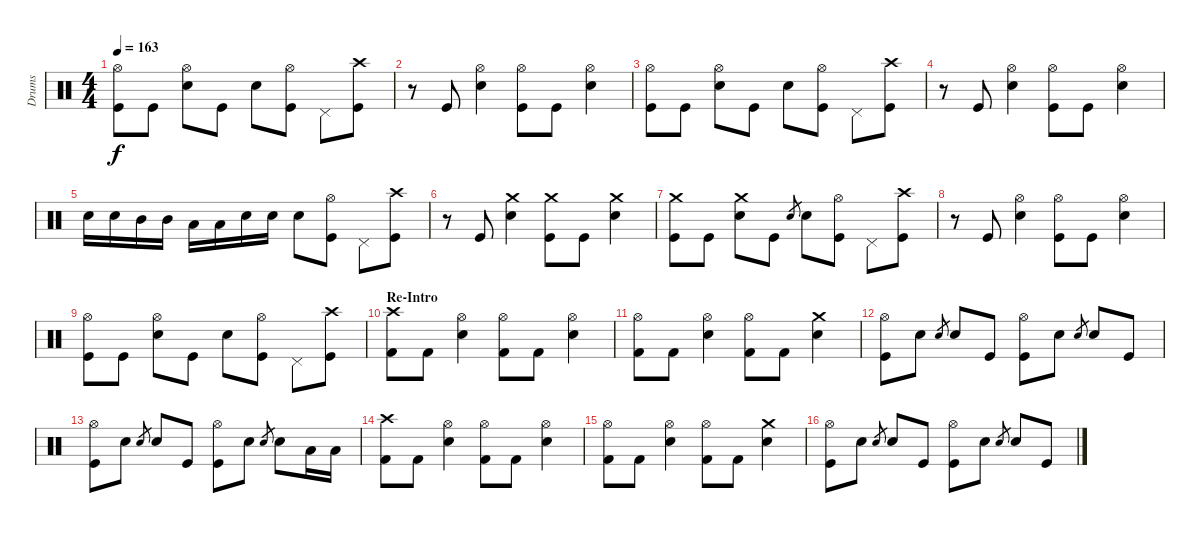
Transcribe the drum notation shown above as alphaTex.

\track ("Drums" "Drums") {instrument percussion}
\staff {score}
\articulation defaults
\ts (4 4)
\tempo 163
\clef neutral
\ks c
("Hi-Hat (open)" "Kick (hit)").8{dy f} "Kick (hit)".8 ("Hi-Hat (open)" "Electric Snare (hit)").8 "Kick (hit)".8 "Electric Snare (hit)".8 ("Hi-Hat (open)" "Kick (hit)").8 "Pedal Hi-Hat (hit)".8 ("Crash high (hit)" "Kick (hit)").8 |
r.8 "Kick (hit)".8 ("Hi-Hat (open)" "Electric Snare (hit)").4 ("Hi-Hat (open)" "Kick (hit)").8 "Kick (hit)".8 ("Hi-Hat (open)" "Electric Snare (hit)").4 |
("Hi-Hat (open)" "Kick (hit)").8 "Kick (hit)".8 ("Hi-Hat (open)" "Electric Snare (hit)").8 "Kick (hit)".8 "Electric Snare (hit)".8 ("Hi-Hat (open)" "Kick (hit)").8 "Pedal Hi-Hat (hit)".8 ("Crash high (hit)" "Kick (hit)").8 |
r.8 "Kick (hit)".8 ("Hi-Hat (open)" "Electric Snare (hit)").4 ("Hi-Hat (open)" "Kick (hit)").8 "Kick (hit)".8 ("Hi-Hat (open)" "Electric Snare (hit)").4 |
"Electric Snare (hit)".16 "Electric Snare (hit)".16 "Mid Tom (hit)".16 "Mid Tom (hit)".16 "Low Tom (hit)".16 "Low Tom (hit)".16 "Electric Snare (hit)".16 "Electric Snare (hit)".16 "Electric Snare (hit)".8 ("Hi-Hat (open)" "Kick (hit)").8 "Pedal Hi-Hat (hit)".8 ("Crash high (hit)" "Kick (hit)").8 |
r.8 "Kick (hit)".8 ("Crash medium (hit)" "Electric Snare (hit)").4 ("Crash medium (hit)" "Kick (hit)").8 "Kick (hit)".8 ("Crash medium (hit)" "Electric Snare (hit)").4 |
("Crash medium (hit)" "Kick (hit)").8 "Kick (hit)".8 ("Crash medium (hit)" "Electric Snare (hit)").8 "Kick (hit)".8 "Electric Snare (hit)".8{gr} "Electric Snare (hit)".8 ("Hi-Hat (open)" "Kick (hit)").8 "Pedal Hi-Hat (hit)".8 ("Crash high (hit)" "Kick (hit)").8 |
r.8 "Kick (hit)".8 ("Hi-Hat (open)" "Electric Snare (hit)").4 ("Hi-Hat (open)" "Kick (hit)").8 "Kick (hit)".8 ("Hi-Hat (open)" "Electric Snare (hit)").4 |
("Hi-Hat (open)" "Kick (hit)").8 "Kick (hit)".8 ("Hi-Hat (open)" "Electric Snare (hit)").8 "Kick (hit)".8 "Electric Snare (hit)".8 ("Hi-Hat (open)" "Kick (hit)").8 "Pedal Hi-Hat (hit)".8 ("Crash high (hit)" "Kick (hit)").8 |
\section ("" "Re-Intro")
("Crash high (hit)" "Kick (hit) 2").8 "Kick (hit) 2".8 ("Hi-Hat (open)" "Electric Snare (hit)").4 ("Hi-Hat (open)" "Kick (hit) 2").8 "Kick (hit) 2".8 ("Hi-Hat (open)" "Electric Snare (hit)").4 |
("Hi-Hat (open)" "Kick (hit) 2").8 "Kick (hit) 2".8 ("Hi-Hat (open)" "Electric Snare (hit)").4 ("Hi-Hat (open)" "Kick (hit) 2").8 "Kick (hit) 2".8 ("Crash medium (hit)" "Electric Snare (hit)").4 |
("Hi-Hat (open)" "Kick (hit)").8 "Electric Snare (hit)".8 "Electric Snare (hit)".8{gr} "Electric Snare (hit)".8 "Kick (hit)".8 ("Hi-Hat (open)" "Kick (hit)").8 "Electric Snare (hit)".8 "Electric Snare (hit)".8{gr} "Electric Snare (hit)".8 "Kick (hit)".8 |
("Hi-Hat (open)" "Kick (hit)").8 "Electric Snare (hit)".8 "Electric Snare (hit)".8{gr} "Electric Snare (hit)".8 "Kick (hit)".8 ("Hi-Hat (open)" "Kick (hit)").8 "Electric Snare (hit)".8 "Electric Snare (hit)".8{gr} "Electric Snare (hit)".8 "Low Tom (hit)".16 "Low Tom (hit)".16 |
("Crash high (hit)" "Kick (hit) 2").8 "Kick (hit) 2".8 ("Hi-Hat (open)" "Electric Snare (hit)").4 ("Hi-Hat (open)" "Kick (hit) 2").8 "Kick (hit) 2".8 ("Hi-Hat (open)" "Electric Snare (hit)").4 |
("Hi-Hat (open)" "Kick (hit) 2").8 "Kick (hit) 2".8 ("Hi-Hat (open)" "Electric Snare (hit)").4 ("Hi-Hat (open)" "Kick (hit) 2").8 "Kick (hit) 2".8 ("Crash medium (hit)" "Electric Snare (hit)").4 |
("Hi-Hat (open)" "Kick (hit)").8 "Electric Snare (hit)".8 "Electric Snare (hit)".8{gr} "Electric Snare (hit)".8 "Kick (hit)".8 ("Hi-Hat (open)" "Kick (hit)").8 "Electric Snare (hit)".8 "Electric Snare (hit)".8{gr} "Electric Snare (hit)".8 "Kick (hit)".8
